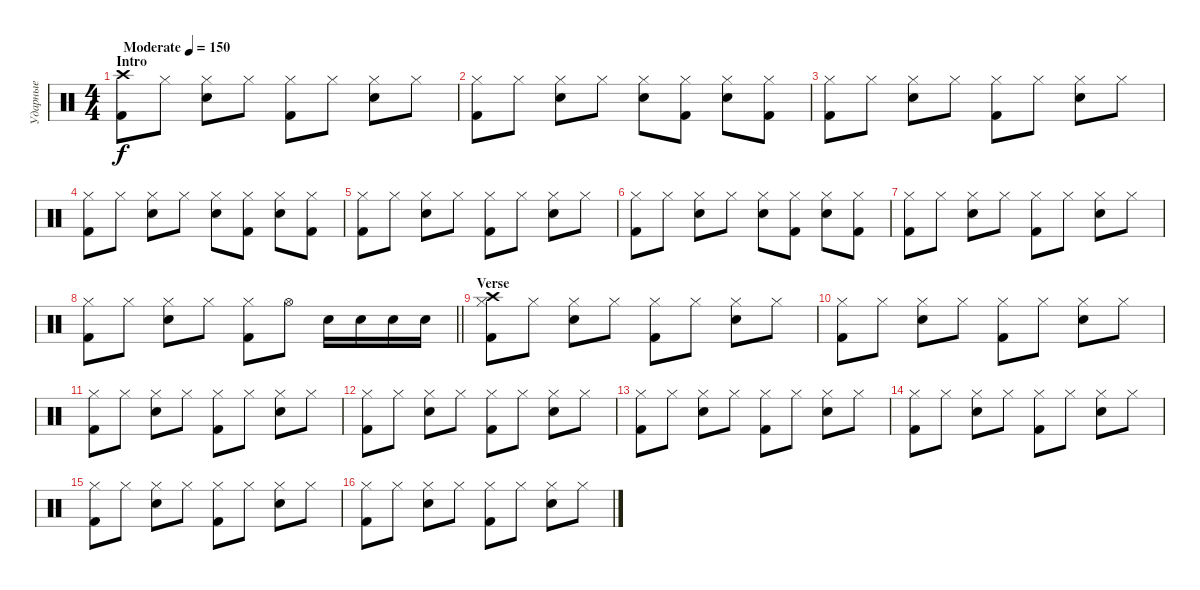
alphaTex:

\track ("Ударные" "Ударные") {instrument percussion}
\staff {score}
\articulation defaults
\ts (4 4)
\section ("" "Intro")
\tempo (150 "Moderate")
\clef neutral
\ks c
("Crash high (hit)" "Kick (hit) 2").8{dy f} "Hi-Hat (closed)".8 ("Hi-Hat (closed)" "Electric Snare (hit)").8 "Hi-Hat (closed)".8 ("Hi-Hat (closed)" "Kick (hit) 2").8 "Hi-Hat (closed)".8 ("Hi-Hat (closed)" "Electric Snare (hit)").8 "Hi-Hat (closed)".8 |
("Hi-Hat (closed)" "Kick (hit) 2").8 "Hi-Hat (closed)".8 ("Hi-Hat (closed)" "Electric Snare (hit)").8 "Hi-Hat (closed)".8 ("Hi-Hat (closed)" "Electric Snare (hit)").8 ("Hi-Hat (closed)" "Kick (hit) 2").8 ("Hi-Hat (closed)" "Electric Snare (hit)").8 ("Hi-Hat (closed)" "Kick (hit) 2").8 |
("Hi-Hat (closed)" "Kick (hit) 2").8 "Hi-Hat (closed)".8 ("Hi-Hat (closed)" "Electric Snare (hit)").8 "Hi-Hat (closed)".8 ("Hi-Hat (closed)" "Kick (hit) 2").8 "Hi-Hat (closed)".8 ("Hi-Hat (closed)" "Electric Snare (hit)").8 "Hi-Hat (closed)".8 |
("Hi-Hat (closed)" "Kick (hit) 2").8 "Hi-Hat (closed)".8 ("Hi-Hat (closed)" "Electric Snare (hit)").8 "Hi-Hat (closed)".8 ("Hi-Hat (closed)" "Electric Snare (hit)").8 ("Hi-Hat (closed)" "Kick (hit) 2").8 ("Hi-Hat (closed)" "Electric Snare (hit)").8 ("Hi-Hat (closed)" "Kick (hit) 2").8 |
("Hi-Hat (closed)" "Kick (hit) 2").8 "Hi-Hat (closed)".8 ("Hi-Hat (closed)" "Electric Snare (hit)").8 "Hi-Hat (closed)".8 ("Hi-Hat (closed)" "Kick (hit) 2").8 "Hi-Hat (closed)".8 ("Hi-Hat (closed)" "Electric Snare (hit)").8 "Hi-Hat (closed)".8 |
("Hi-Hat (closed)" "Kick (hit) 2").8 "Hi-Hat (closed)".8 ("Hi-Hat (closed)" "Electric Snare (hit)").8 "Hi-Hat (closed)".8 ("Hi-Hat (closed)" "Electric Snare (hit)").8 ("Hi-Hat (closed)" "Kick (hit) 2").8 ("Hi-Hat (closed)" "Electric Snare (hit)").8 ("Hi-Hat (closed)" "Kick (hit) 2").8 |
("Hi-Hat (closed)" "Kick (hit) 2").8 "Hi-Hat (closed)".8 ("Hi-Hat (closed)" "Electric Snare (hit)").8 "Hi-Hat (closed)".8 ("Hi-Hat (closed)" "Kick (hit) 2").8 "Hi-Hat (closed)".8 ("Hi-Hat (closed)" "Electric Snare (hit)").8 "Hi-Hat (closed)".8 |
\barLineRight lightlight
("Hi-Hat (closed)" "Kick (hit) 2").8 "Hi-Hat (closed)".8 ("Hi-Hat (closed)" "Electric Snare (hit)").8 "Hi-Hat (closed)".8 ("Hi-Hat (closed)" "Kick (hit) 2").8 "Hi-Hat (open)".8 "Electric Snare (hit)".16 "Electric Snare (hit)".16 "Electric Snare (hit)".16 "Electric Snare (hit)".16 |
\section ("" "Verse")
("Crash high (hit)" "Hi-Hat (closed)" "Kick (hit) 2").8 "Hi-Hat (closed)".8 ("Hi-Hat (closed)" "Electric Snare (hit)").8 "Hi-Hat (closed)".8 ("Hi-Hat (closed)" "Kick (hit) 2").8 "Hi-Hat (closed)".8 ("Hi-Hat (closed)" "Electric Snare (hit)").8 "Hi-Hat (closed)".8 |
("Hi-Hat (closed)" "Kick (hit) 2").8 "Hi-Hat (closed)".8 ("Hi-Hat (closed)" "Electric Snare (hit)").8 "Hi-Hat (closed)".8 ("Hi-Hat (closed)" "Kick (hit) 2").8 "Hi-Hat (closed)".8 ("Hi-Hat (closed)" "Electric Snare (hit)").8 "Hi-Hat (closed)".8 |
("Hi-Hat (closed)" "Kick (hit) 2").8 "Hi-Hat (closed)".8 ("Hi-Hat (closed)" "Electric Snare (hit)").8 "Hi-Hat (closed)".8 ("Hi-Hat (closed)" "Kick (hit) 2").8 "Hi-Hat (closed)".8 ("Hi-Hat (closed)" "Electric Snare (hit)").8 "Hi-Hat (closed)".8 |
("Hi-Hat (closed)" "Kick (hit) 2").8 "Hi-Hat (closed)".8 ("Hi-Hat (closed)" "Electric Snare (hit)").8 "Hi-Hat (closed)".8 ("Hi-Hat (closed)" "Kick (hit) 2").8 "Hi-Hat (closed)".8 ("Hi-Hat (closed)" "Electric Snare (hit)").8 "Hi-Hat (closed)".8 |
("Hi-Hat (closed)" "Kick (hit) 2").8 "Hi-Hat (closed)".8 ("Hi-Hat (closed)" "Electric Snare (hit)").8 "Hi-Hat (closed)".8 ("Hi-Hat (closed)" "Kick (hit) 2").8 "Hi-Hat (closed)".8 ("Hi-Hat (closed)" "Electric Snare (hit)").8 "Hi-Hat (closed)".8 |
("Hi-Hat (closed)" "Kick (hit) 2").8 "Hi-Hat (closed)".8 ("Hi-Hat (closed)" "Electric Snare (hit)").8 "Hi-Hat (closed)".8 ("Hi-Hat (closed)" "Kick (hit) 2").8 "Hi-Hat (closed)".8 ("Hi-Hat (closed)" "Electric Snare (hit)").8 "Hi-Hat (closed)".8 |
("Hi-Hat (closed)" "Kick (hit) 2").8 "Hi-Hat (closed)".8 ("Hi-Hat (closed)" "Electric Snare (hit)").8 "Hi-Hat (closed)".8 ("Hi-Hat (closed)" "Kick (hit) 2").8 "Hi-Hat (closed)".8 ("Hi-Hat (closed)" "Electric Snare (hit)").8 "Hi-Hat (closed)".8 |
("Hi-Hat (closed)" "Kick (hit) 2").8 "Hi-Hat (closed)".8 ("Hi-Hat (closed)" "Electric Snare (hit)").8 "Hi-Hat (closed)".8 ("Hi-Hat (closed)" "Kick (hit) 2").8 "Hi-Hat (closed)".8 ("Hi-Hat (closed)" "Electric Snare (hit)").8 "Hi-Hat (closed)".8
